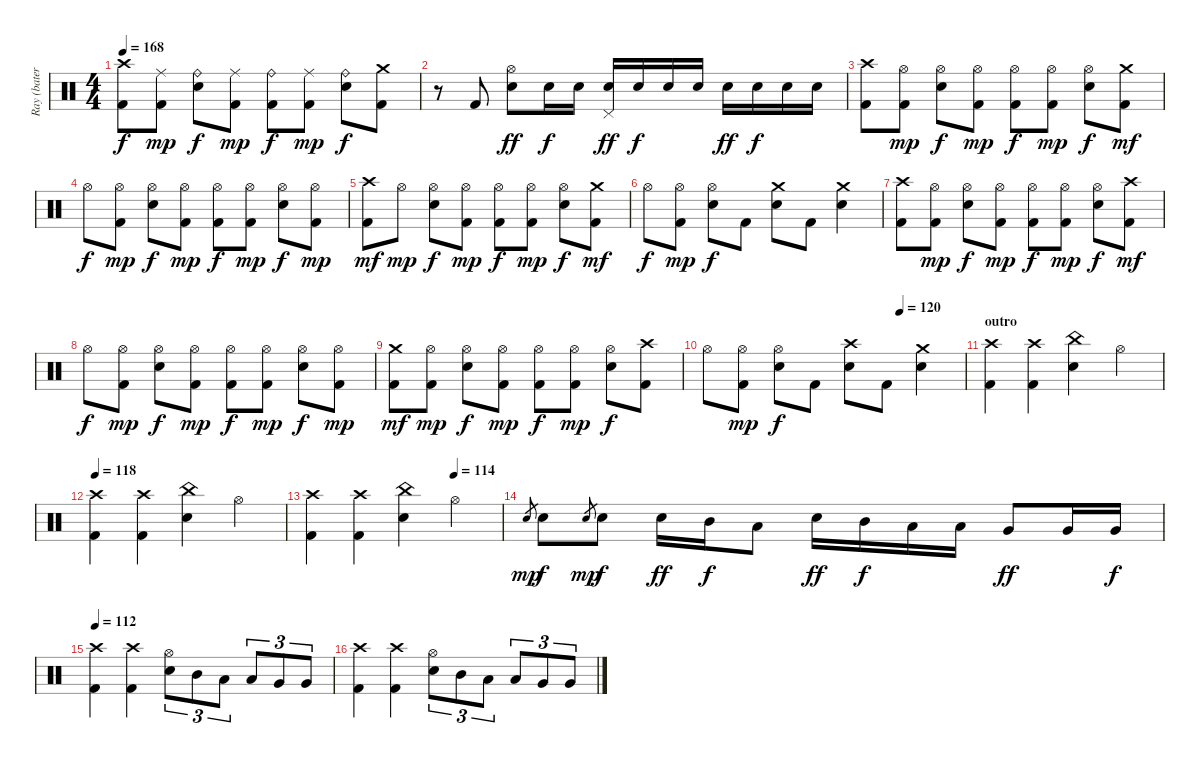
\track ("Ray (batería)" "Ray (bater") {instrument percussion}
\staff {score}
\articulation defaults
\ts (4 4)
\tempo 168
\clef neutral
\ks c
("Crash high (hit)" "Kick (hit) 2").8{dy f} ("Ride (middle)" "Kick (hit) 2").8{dy mp} ("Ride (bell)" "Snare (hit) 2").8{dy f} ("Ride (middle)" "Kick (hit) 2").8{dy mp} ("Ride (bell)" "Kick (hit) 2").8{dy f} ("Ride (middle)" "Kick (hit) 2").8{dy mp} ("Ride (bell)" "Snare (hit) 2").8{dy f} ("Crash medium (hit)" "Kick (hit) 2").8 |
r.8 "Kick (hit) 2".8 ("Hi-Hat (open)" "Snare (hit) 2").8{dy ff} "Snare (hit) 2".16{dy f} "Snare (hit) 2".16 ("Snare (hit) 2" "Pedal Hi-Hat (hit)").16{dy ff} "Snare (hit) 2".16{dy f} "Snare (hit) 2".16 "Snare (hit) 2".16 "Snare (hit) 2".16{dy ff} "Snare (hit) 2".16{dy f} "Snare (hit) 2".16 "Snare (hit) 2".16 |
("Crash high (hit)" "Kick (hit) 2").8 ("Hi-Hat (open)" "Kick (hit) 2").8{dy mp} ("Hi-Hat (open)" "Snare (hit) 2").8{dy f} ("Hi-Hat (open)" "Kick (hit) 2").8{dy mp} ("Hi-Hat (open)" "Kick (hit) 2").8{dy f} ("Hi-Hat (open)" "Kick (hit) 2").8{dy mp} ("Hi-Hat (open)" "Snare (hit) 2").8{dy f} ("Crash medium (hit)" "Kick (hit) 2").8{dy mf} |
"Hi-Hat (open)".8{dy f} ("Hi-Hat (open)" "Kick (hit) 2").8{dy mp} ("Hi-Hat (open)" "Snare (hit) 2").8{dy f} ("Hi-Hat (open)" "Kick (hit) 2").8{dy mp} ("Hi-Hat (open)" "Kick (hit) 2").8{dy f} ("Hi-Hat (open)" "Kick (hit) 2").8{dy mp} ("Hi-Hat (open)" "Snare (hit) 2").8{dy f} ("Hi-Hat (open)" "Kick (hit) 2").8{dy mp} |
("Crash high (hit)" "Kick (hit) 2").8{dy mf} "Hi-Hat (open)".8{dy mp} ("Hi-Hat (open)" "Snare (hit) 2").8{dy f} ("Hi-Hat (open)" "Kick (hit) 2").8{dy mp} ("Hi-Hat (open)" "Kick (hit) 2").8{dy f} ("Hi-Hat (open)" "Kick (hit) 2").8{dy mp} ("Hi-Hat (open)" "Snare (hit) 2").8{dy f} ("Crash medium (hit)" "Kick (hit) 2").8{dy mf} |
"Hi-Hat (open)".8{dy f} ("Hi-Hat (open)" "Kick (hit) 2").8{dy mp} ("Hi-Hat (open)" "Snare (hit) 2").8{dy f} "Kick (hit) 2".8 ("Crash medium (hit)" "Snare (hit) 2").8 "Kick (hit) 2".8 ("Crash medium (hit)" "Snare (hit) 2").4 |
("Crash high (hit)" "Kick (hit) 2").8 ("Hi-Hat (open)" "Kick (hit) 2").8{dy mp} ("Hi-Hat (open)" "Snare (hit) 2").8{dy f} ("Hi-Hat (open)" "Kick (hit) 2").8{dy mp} ("Hi-Hat (open)" "Kick (hit) 2").8{dy f} ("Hi-Hat (open)" "Kick (hit) 2").8{dy mp} ("Hi-Hat (open)" "Snare (hit) 2").8{dy f} ("Crash high (hit)" "Kick (hit) 2").8{dy mf} |
"Hi-Hat (open)".8{dy f} ("Hi-Hat (open)" "Kick (hit) 2").8{dy mp} ("Hi-Hat (open)" "Snare (hit) 2").8{dy f} ("Hi-Hat (open)" "Kick (hit) 2").8{dy mp} ("Hi-Hat (open)" "Kick (hit) 2").8{dy f} ("Hi-Hat (open)" "Kick (hit) 2").8{dy mp} ("Hi-Hat (open)" "Snare (hit) 2").8{dy f} ("Hi-Hat (open)" "Kick (hit) 2").8{dy mp} |
("Crash medium (hit)" "Kick (hit) 2").8{dy mf} ("Hi-Hat (open)" "Kick (hit) 2").8{dy mp} ("Hi-Hat (open)" "Snare (hit) 2").8{dy f} ("Hi-Hat (open)" "Kick (hit) 2").8{dy mp} ("Hi-Hat (open)" "Kick (hit) 2").8{dy f} ("Hi-Hat (open)" "Kick (hit) 2").8{dy mp} ("Hi-Hat (open)" "Snare (hit) 2").8{dy f} ("Crash high (hit)" "Kick (hit) 2").8 |
\tempo (120 0.75)
"Hi-Hat (open)".8 ("Hi-Hat (open)" "Kick (hit) 2").8{dy mp} ("Hi-Hat (open)" "Snare (hit) 2").8{dy f} "Kick (hit) 2".8 ("Crash high (hit)" "Snare (hit) 2").8 "Kick (hit) 2".8 ("Crash medium (hit)" "Snare (hit) 2").4 |
\section ("" "outro")
("Crash high (hit)" "Kick (hit) 2").4 ("Crash high (hit)" "Kick (hit) 2").4 ("China (hit)" "Snare (hit) 2").4 "Hi-Hat (open)".4 |
\tempo 118
("Crash high (hit)" "Kick (hit) 2").4 ("Crash high (hit)" "Kick (hit) 2").4 ("China (hit)" "Snare (hit) 2").4 "Hi-Hat (open)".4 |
\tempo (114 0.75)
("Crash high (hit)" "Kick (hit) 2").4 ("Crash high (hit)" "Kick (hit) 2").4 ("China (hit)" "Snare (hit) 2").4 "Hi-Hat (open)".4 |
"Snare (hit) 2".8{gr dy mp} "Snare (hit) 2".8{dy f} "Snare (hit) 2".8{gr dy mp} "Snare (hit) 2".8{dy f} "Snare (hit) 2".16{dy ff} "Mid Tom (hit)".16{dy f} "Low Tom (hit)".8 "Snare (hit) 2".16{dy ff} "Mid Tom (hit)".16{dy f} "Low Tom (hit)".16 "Low Tom (hit)".16 "Very Low Tom (hit)".8{dy ff} "Very Low Tom (hit)".16 "Very Low Tom (hit)".16{dy f} |
\tempo 112
("Crash high (hit)" "Kick (hit) 2").4 ("Crash high (hit)" "Kick (hit) 2").4 ("Hi-Hat (open)" "Snare (hit) 2").8{tu (3 2)} "Mid Tom (hit)".8{tu (3 2)} "Low Tom (hit)".8{tu (3 2)} "Low Tom (hit)".8{tu (3 2)} "Very Low Tom (hit)".8{tu (3 2)} "Very Low Tom (hit)".8{tu (3 2)} |
("Crash high (hit)" "Kick (hit) 2").4 ("Crash high (hit)" "Kick (hit) 2").4 ("Hi-Hat (open)" "Snare (hit) 2").8{tu (3 2)} "Mid Tom (hit)".8{tu (3 2)} "Low Tom (hit)".8{tu (3 2)} "Low Tom (hit)".8{tu (3 2)} "Very Low Tom (hit)".8{tu (3 2)} "Very Low Tom (hit)".8{tu (3 2)}
